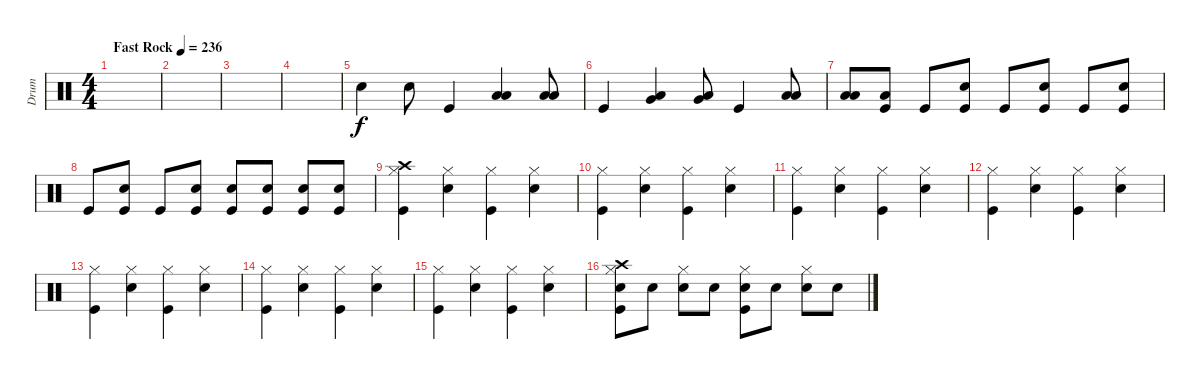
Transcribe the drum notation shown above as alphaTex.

\track ("Drum" "Drum") {instrument percussion}
\staff {score}
\articulation defaults
\ts (4 4)
\tempo (236 "Fast Rock")
\clef neutral
\ks c
|
|
|
|
"Snare (hit) 2".4 "Snare (hit) 2".8 "Kick (hit)".4 ("Low Floor Tom (hit)" "Low Tom (hit)").4 ("Low Floor Tom (hit)" "Low Tom (hit)").8 |
"Kick (hit)".4 ("Low Floor Tom (hit)" "Very Low Tom (hit)").4 ("Low Floor Tom (hit)" "Very Low Tom (hit)").8 "Kick (hit)".4 ("Low Floor Tom (hit)" "Low Floor Tom (hit)").8 |
("Low Floor Tom (hit)" "Low Floor Tom (hit)").8 ("Low Floor Tom (hit)" "Kick (hit)").8 "Kick (hit)".8 ("Snare (hit) 2" "Kick (hit)").8 "Kick (hit)".8 ("Snare (hit) 2" "Kick (hit)").8 "Kick (hit)".8 ("Snare (hit) 2" "Kick (hit)").8 |
"Kick (hit)".8 ("Snare (hit) 2" "Kick (hit)").8 "Kick (hit)".8 ("Snare (hit) 2" "Kick (hit)").8 ("Snare (hit) 2" "Kick (hit)").8 ("Snare (hit) 2" "Kick (hit)").8 ("Snare (hit) 2" "Kick (hit)").8 ("Snare (hit) 2" "Kick (hit)").8 |
("Crash high (hit)" "Hi-Hat (closed)" "Kick (hit)").4 ("Hi-Hat (closed)" "Snare (hit) 2").4 ("Hi-Hat (closed)" "Kick (hit)").4 ("Hi-Hat (closed)" "Snare (hit) 2").4 |
("Hi-Hat (closed)" "Kick (hit)").4 ("Hi-Hat (closed)" "Snare (hit) 2").4 ("Hi-Hat (closed)" "Kick (hit)").4 ("Hi-Hat (closed)" "Snare (hit) 2").4 |
("Hi-Hat (closed)" "Kick (hit)").4 ("Hi-Hat (closed)" "Snare (hit) 2").4 ("Hi-Hat (closed)" "Kick (hit)").4 ("Hi-Hat (closed)" "Snare (hit) 2").4 |
("Hi-Hat (closed)" "Kick (hit)").4 ("Hi-Hat (closed)" "Snare (hit) 2").4 ("Hi-Hat (closed)" "Kick (hit)").4 ("Hi-Hat (closed)" "Snare (hit) 2").4 |
("Hi-Hat (closed)" "Kick (hit)").4 ("Hi-Hat (closed)" "Snare (hit) 2").4 ("Hi-Hat (closed)" "Kick (hit)").4 ("Hi-Hat (closed)" "Snare (hit) 2").4 |
("Hi-Hat (closed)" "Kick (hit)").4 ("Hi-Hat (closed)" "Snare (hit) 2").4 ("Hi-Hat (closed)" "Kick (hit)").4 ("Hi-Hat (closed)" "Snare (hit) 2").4 |
("Hi-Hat (closed)" "Kick (hit)").4 ("Hi-Hat (closed)" "Snare (hit) 2").4 ("Hi-Hat (closed)" "Kick (hit)").4 ("Hi-Hat (closed)" "Snare (hit) 2").4 |
("Crash high (hit)" "Hi-Hat (closed)" "Snare (hit) 2" "Kick (hit)").8 "Snare (hit) 2".8 ("Hi-Hat (closed)" "Snare (hit) 2").8 "Snare (hit) 2".8 ("Hi-Hat (closed)" "Snare (hit) 2" "Kick (hit)").8 "Snare (hit) 2".8 ("Hi-Hat (closed)" "Snare (hit) 2").8 "Snare (hit) 2".8
